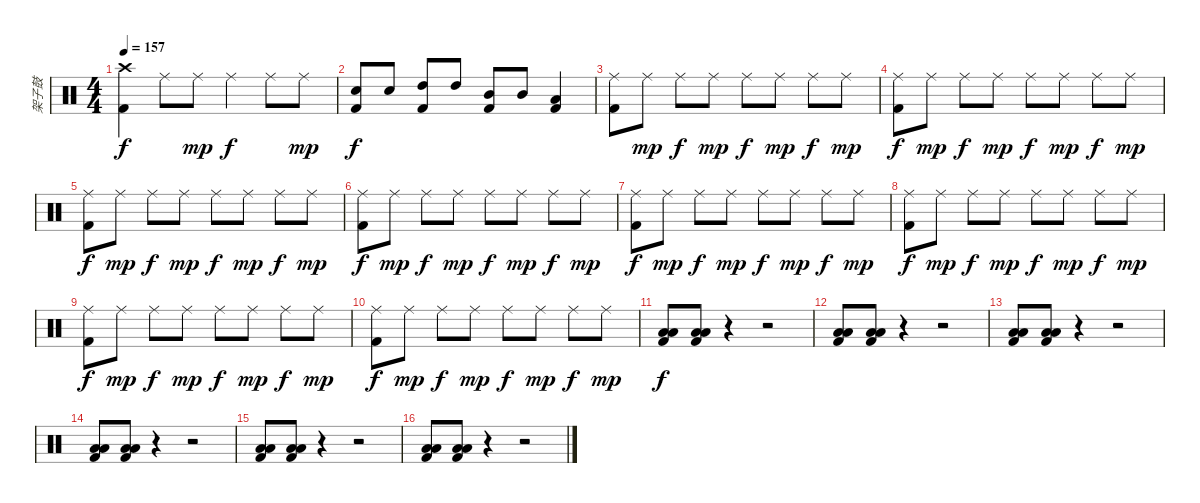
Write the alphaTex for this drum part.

\track ("架子鼓" "架子鼓") {instrument percussion}
\staff {score}
\articulation defaults
\ts (4 4)
\tempo 157
\clef neutral
\ks c
("Crash high (hit)" "Kick (hit) 2").4{dy f} "Ride (middle)".8 "Ride (middle)".8{dy mp} "Ride (middle)".4{dy f} "Ride (middle)".8 "Ride (middle)".8{dy mp} |
("Snare (hit) 2" "Kick (hit) 2").8{dy f} "Snare (hit) 2".8 ("High Tom (hit)" "Kick (hit) 2").8 "High Tom (hit)".8 ("Mid Tom (hit)" "Kick (hit) 2").8 "Mid Tom (hit)".8 ("Low Tom (hit)" "Kick (hit) 2").4 |
("Ride (middle)" "Kick (hit) 2").8 "Ride (middle)".8{dy mp} "Ride (middle)".8{dy f} "Ride (middle)".8{dy mp} "Ride (middle)".8{dy f} "Ride (middle)".8{dy mp} "Ride (middle)".8{dy f} "Ride (middle)".8{dy mp} |
("Ride (middle)" "Kick (hit) 2").8{dy f} "Ride (middle)".8{dy mp} "Ride (middle)".8{dy f} "Ride (middle)".8{dy mp} "Ride (middle)".8{dy f} "Ride (middle)".8{dy mp} "Ride (middle)".8{dy f} "Ride (middle)".8{dy mp} |
("Ride (middle)" "Kick (hit) 2").8{dy f} "Ride (middle)".8{dy mp} "Ride (middle)".8{dy f} "Ride (middle)".8{dy mp} "Ride (middle)".8{dy f} "Ride (middle)".8{dy mp} "Ride (middle)".8{dy f} "Ride (middle)".8{dy mp} |
("Ride (middle)" "Kick (hit) 2").8{dy f} "Ride (middle)".8{dy mp} "Ride (middle)".8{dy f} "Ride (middle)".8{dy mp} "Ride (middle)".8{dy f} "Ride (middle)".8{dy mp} "Ride (middle)".8{dy f} "Ride (middle)".8{dy mp} |
("Ride (middle)" "Kick (hit) 2").8{dy f} "Ride (middle)".8{dy mp} "Ride (middle)".8{dy f} "Ride (middle)".8{dy mp} "Ride (middle)".8{dy f} "Ride (middle)".8{dy mp} "Ride (middle)".8{dy f} "Ride (middle)".8{dy mp} |
("Ride (middle)" "Kick (hit) 2").8{dy f} "Ride (middle)".8{dy mp} "Ride (middle)".8{dy f} "Ride (middle)".8{dy mp} "Ride (middle)".8{dy f} "Ride (middle)".8{dy mp} "Ride (middle)".8{dy f} "Ride (middle)".8{dy mp} |
("Ride (middle)" "Kick (hit) 2").8{dy f} "Ride (middle)".8{dy mp} "Ride (middle)".8{dy f} "Ride (middle)".8{dy mp} "Ride (middle)".8{dy f} "Ride (middle)".8{dy mp} "Ride (middle)".8{dy f} "Ride (middle)".8{dy mp} |
("Ride (middle)" "Kick (hit) 2").8{dy f} "Ride (middle)".8{dy mp} "Ride (middle)".8{dy f} "Ride (middle)".8{dy mp} "Ride (middle)".8{dy f} "Ride (middle)".8{dy mp} "Ride (middle)".8{dy f} "Ride (middle)".8{dy mp} |
("Low Floor Tom (hit)" "Low Floor Tom (hit)" "Kick (hit) 2").8{dy f} ("Low Floor Tom (hit)" "Low Floor Tom (hit)" "Kick (hit) 2").8 r.4 r.2 |
("Low Floor Tom (hit)" "Low Floor Tom (hit)" "Kick (hit) 2").8 ("Low Floor Tom (hit)" "Low Floor Tom (hit)" "Kick (hit) 2").8 r.4 r.2 |
("Low Floor Tom (hit)" "Low Floor Tom (hit)" "Kick (hit) 2").8 ("Low Floor Tom (hit)" "Low Floor Tom (hit)" "Kick (hit) 2").8 r.4 r.2 |
("Low Floor Tom (hit)" "Low Floor Tom (hit)" "Kick (hit) 2").8 ("Low Floor Tom (hit)" "Low Floor Tom (hit)" "Kick (hit) 2").8 r.4 r.2 |
("Low Floor Tom (hit)" "Low Floor Tom (hit)" "Kick (hit) 2").8 ("Low Floor Tom (hit)" "Low Floor Tom (hit)" "Kick (hit) 2").8 r.4 r.2 |
("Low Floor Tom (hit)" "Low Floor Tom (hit)" "Kick (hit) 2").8 ("Low Floor Tom (hit)" "Low Floor Tom (hit)" "Kick (hit) 2").8 r.4 r.2
